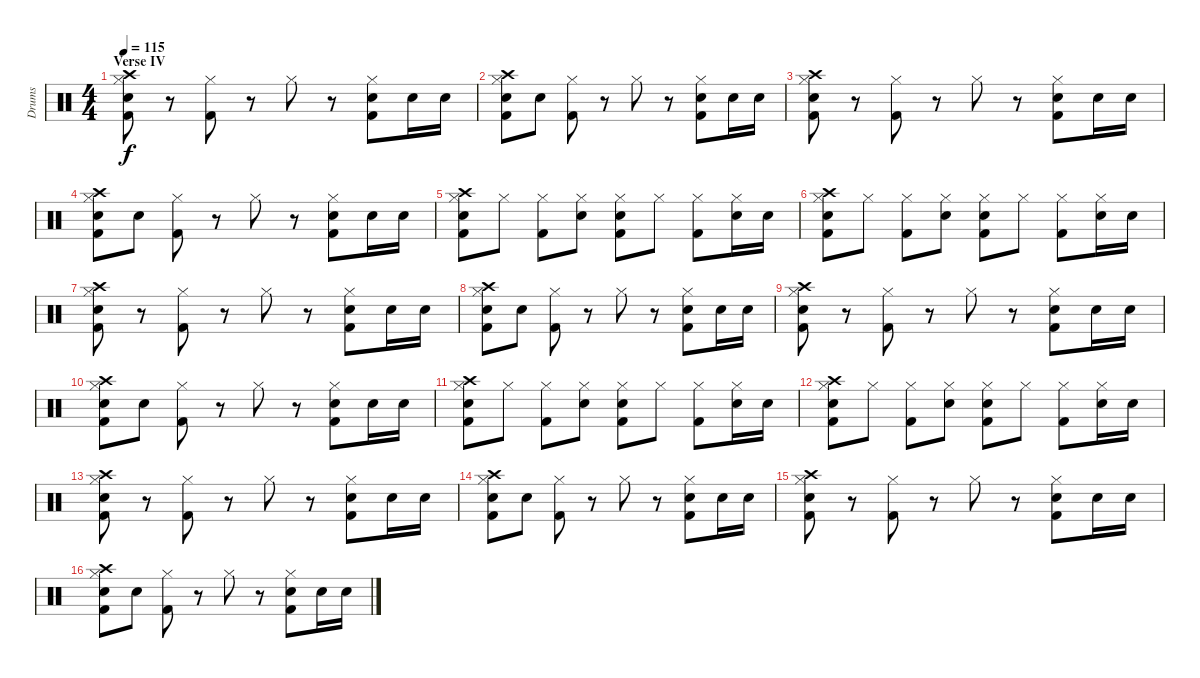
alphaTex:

\track ("Drums" "Drums") {instrument percussion}
\staff {score}
\articulation defaults
\ts (4 4)
\section ("" "Verse IV")
\tempo 115
\clef neutral
\ks c
("Hi-Hat (closed)" "Kick (hit) 2" "Snare (hit) 2" "Crash high (hit)").8{dy f} r.8 ("Hi-Hat (closed)" "Kick (hit) 2").8 r.8 "Hi-Hat (closed)".8 r.8 ("Hi-Hat (closed)" "Kick (hit) 2" "Snare (hit) 2").8 "Snare (hit) 2".16 "Snare (hit) 2".16 |
("Hi-Hat (closed)" "Kick (hit) 2" "Snare (hit) 2" "Crash high (hit)").8 "Snare (hit) 2".8 ("Hi-Hat (closed)" "Kick (hit) 2").8 r.8 "Hi-Hat (closed)".8 r.8 ("Hi-Hat (closed)" "Kick (hit) 2" "Snare (hit) 2").8 "Snare (hit) 2".16 "Snare (hit) 2".16 |
("Hi-Hat (closed)" "Kick (hit) 2" "Snare (hit) 2" "Crash high (hit)").8 r.8 ("Hi-Hat (closed)" "Kick (hit) 2").8 r.8 "Hi-Hat (closed)".8 r.8 ("Hi-Hat (closed)" "Kick (hit) 2" "Snare (hit) 2").8 "Snare (hit) 2".16 "Snare (hit) 2".16 |
("Hi-Hat (closed)" "Kick (hit) 2" "Snare (hit) 2" "Crash high (hit)").8 "Snare (hit) 2".8 ("Hi-Hat (closed)" "Kick (hit) 2").8 r.8 "Hi-Hat (closed)".8 r.8 ("Hi-Hat (closed)" "Kick (hit) 2" "Snare (hit) 2").8 "Snare (hit) 2".16 "Snare (hit) 2".16 |
("Hi-Hat (closed)" "Kick (hit) 2" "Snare (hit) 2" "Crash high (hit)").8 "Hi-Hat (closed)".8 ("Hi-Hat (closed)" "Kick (hit) 2").8 ("Hi-Hat (closed)" "Snare (hit) 2").8 ("Hi-Hat (closed)" "Kick (hit) 2" "Snare (hit) 2").8 "Hi-Hat (closed)".8 ("Hi-Hat (closed)" "Kick (hit) 2").8 ("Hi-Hat (closed)" "Snare (hit) 2").16 "Snare (hit) 2".16 |
("Hi-Hat (closed)" "Kick (hit) 2" "Snare (hit) 2" "Crash high (hit)").8 "Hi-Hat (closed)".8 ("Hi-Hat (closed)" "Kick (hit) 2").8 ("Hi-Hat (closed)" "Snare (hit) 2").8 ("Hi-Hat (closed)" "Kick (hit) 2" "Snare (hit) 2").8 "Hi-Hat (closed)".8 ("Hi-Hat (closed)" "Kick (hit) 2").8 ("Hi-Hat (closed)" "Snare (hit) 2").16 "Snare (hit) 2".16 |
("Hi-Hat (closed)" "Kick (hit) 2" "Snare (hit) 2" "Crash high (hit)").8 r.8 ("Hi-Hat (closed)" "Kick (hit) 2").8 r.8 "Hi-Hat (closed)".8 r.8 ("Hi-Hat (closed)" "Kick (hit) 2" "Snare (hit) 2").8 "Snare (hit) 2".16 "Snare (hit) 2".16 |
("Hi-Hat (closed)" "Kick (hit) 2" "Snare (hit) 2" "Crash high (hit)").8 "Snare (hit) 2".8 ("Hi-Hat (closed)" "Kick (hit) 2").8 r.8 "Hi-Hat (closed)".8 r.8 ("Hi-Hat (closed)" "Kick (hit) 2" "Snare (hit) 2").8 "Snare (hit) 2".16 "Snare (hit) 2".16 |
("Hi-Hat (closed)" "Kick (hit) 2" "Snare (hit) 2" "Crash high (hit)").8 r.8 ("Hi-Hat (closed)" "Kick (hit) 2").8 r.8 "Hi-Hat (closed)".8 r.8 ("Hi-Hat (closed)" "Kick (hit) 2" "Snare (hit) 2").8 "Snare (hit) 2".16 "Snare (hit) 2".16 |
("Hi-Hat (closed)" "Kick (hit) 2" "Snare (hit) 2" "Crash high (hit)").8 "Snare (hit) 2".8 ("Hi-Hat (closed)" "Kick (hit) 2").8 r.8 "Hi-Hat (closed)".8 r.8 ("Hi-Hat (closed)" "Kick (hit) 2" "Snare (hit) 2").8 "Snare (hit) 2".16 "Snare (hit) 2".16 |
("Hi-Hat (closed)" "Kick (hit) 2" "Snare (hit) 2" "Crash high (hit)").8 "Hi-Hat (closed)".8 ("Hi-Hat (closed)" "Kick (hit) 2").8 ("Hi-Hat (closed)" "Snare (hit) 2").8 ("Hi-Hat (closed)" "Kick (hit) 2" "Snare (hit) 2").8 "Hi-Hat (closed)".8 ("Hi-Hat (closed)" "Kick (hit) 2").8 ("Hi-Hat (closed)" "Snare (hit) 2").16 "Snare (hit) 2".16 |
("Hi-Hat (closed)" "Kick (hit) 2" "Snare (hit) 2" "Crash high (hit)").8 "Hi-Hat (closed)".8 ("Hi-Hat (closed)" "Kick (hit) 2").8 ("Hi-Hat (closed)" "Snare (hit) 2").8 ("Hi-Hat (closed)" "Kick (hit) 2" "Snare (hit) 2").8 "Hi-Hat (closed)".8 ("Hi-Hat (closed)" "Kick (hit) 2").8 ("Hi-Hat (closed)" "Snare (hit) 2").16 "Snare (hit) 2".16 |
("Hi-Hat (closed)" "Kick (hit) 2" "Snare (hit) 2" "Crash high (hit)").8 r.8 ("Hi-Hat (closed)" "Kick (hit) 2").8 r.8 "Hi-Hat (closed)".8 r.8 ("Hi-Hat (closed)" "Kick (hit) 2" "Snare (hit) 2").8 "Snare (hit) 2".16 "Snare (hit) 2".16 |
("Hi-Hat (closed)" "Kick (hit) 2" "Snare (hit) 2" "Crash high (hit)").8 "Snare (hit) 2".8 ("Hi-Hat (closed)" "Kick (hit) 2").8 r.8 "Hi-Hat (closed)".8 r.8 ("Hi-Hat (closed)" "Kick (hit) 2" "Snare (hit) 2").8 "Snare (hit) 2".16 "Snare (hit) 2".16 |
("Hi-Hat (closed)" "Kick (hit) 2" "Snare (hit) 2" "Crash high (hit)").8 r.8 ("Hi-Hat (closed)" "Kick (hit) 2").8 r.8 "Hi-Hat (closed)".8 r.8 ("Hi-Hat (closed)" "Kick (hit) 2" "Snare (hit) 2").8 "Snare (hit) 2".16 "Snare (hit) 2".16 |
("Hi-Hat (closed)" "Kick (hit) 2" "Snare (hit) 2" "Crash high (hit)").8 "Snare (hit) 2".8 ("Hi-Hat (closed)" "Kick (hit) 2").8 r.8 "Hi-Hat (closed)".8 r.8 ("Hi-Hat (closed)" "Kick (hit) 2" "Snare (hit) 2").8 "Snare (hit) 2".16 "Snare (hit) 2".16
